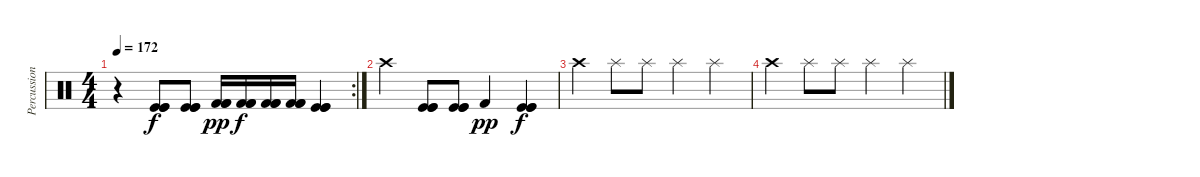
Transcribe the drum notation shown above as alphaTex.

\track ("Percussion" "Percussion") {instrument percussion}
\staff {score}
\articulation defaults
\rc 2
\ts (4 4)
\tempo 172
\clef neutral
\ks c
r.4{dy f} ("Kick (hit)" "Kick (hit)" "Kick (hit)").8 ("Kick (hit)" "Kick (hit)" "Kick (hit)").8 ("Kick (hit) 2" "Kick (hit) 2" "Kick (hit) 2").16{dy pp} ("Kick (hit) 2" "Kick (hit) 2" "Kick (hit) 2").16{dy f} ("Kick (hit) 2" "Kick (hit) 2" "Kick (hit) 2").16 ("Kick (hit) 2" "Kick (hit) 2" "Kick (hit) 2").16 ("Kick (hit)" "Kick (hit)" "Kick (hit)").4 |
"Crash high (hit)".4{volume 0} ("Kick (hit)" "Kick (hit)" "Kick (hit)").8 ("Kick (hit)" "Kick (hit)" "Kick (hit)").8 "Kick (hit) 2".4{dy pp} ("Kick (hit)" "Kick (hit)" "Kick (hit)").4{dy f} |
"Crash high (hit)".4 "Splash (hit)".8 "Splash (hit)".8 "Splash (hit)".4 "Splash (hit)".4 |
"Crash high (hit)".4 "Splash (hit)".8 "Splash (hit)".8 "Splash (hit)".4 "Splash (hit)".4
